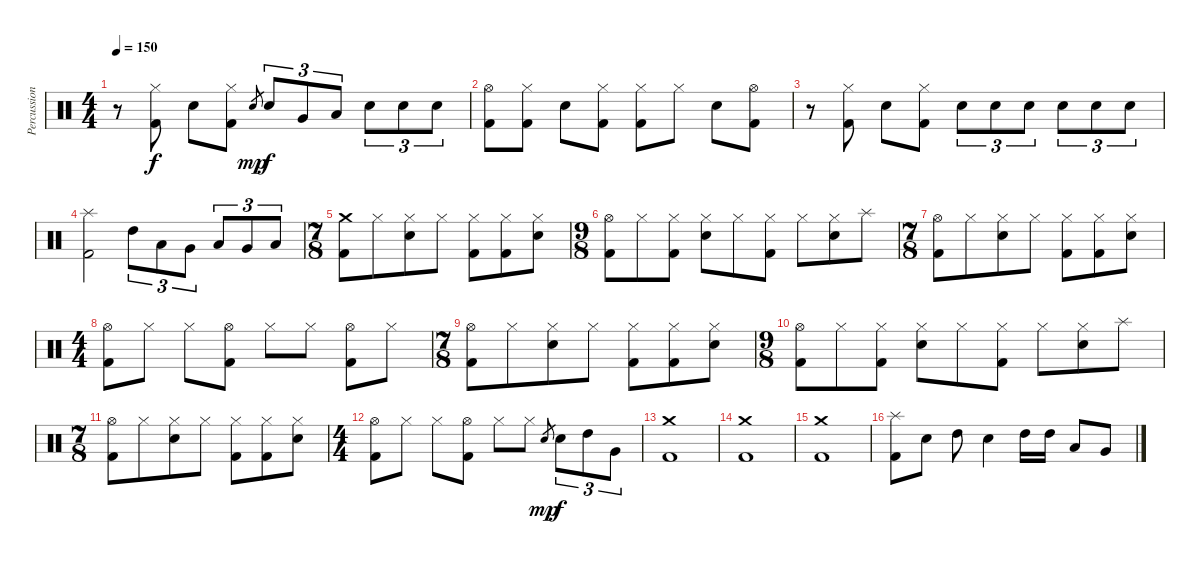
\track ("Percussions" "Percussion") {instrument percussion}
\staff {score}
\articulation defaults
\ts (4 4)
\tempo 150
\clef neutral
\ks c
r.8{dy f} ("Hi-Hat (closed)" "Kick (hit) 2").8 "Snare (hit) 2".8 ("Hi-Hat (closed)" "Kick (hit) 2").8 "Snare (hit) 2".8{gr dy mp} "Snare (hit) 2".8{tu (3 2) dy f} "Very Low Tom (hit)".8{tu (3 2)} "Low Floor Tom (hit)".8{tu (3 2)} "Snare (hit) 2".8{tu (3 2)} "Snare (hit) 2".8{tu (3 2)} "Snare (hit) 2".8{tu (3 2)} |
("Hi-Hat (open)" "Kick (hit) 2").8 ("Hi-Hat (closed)" "Kick (hit) 2").8 "Snare (hit) 2".8 ("Hi-Hat (closed)" "Kick (hit) 2").8 ("Hi-Hat (closed)" "Kick (hit) 2").8 "Hi-Hat (closed)".8 "Snare (hit) 2".8 ("Hi-Hat (open)" "Kick (hit) 2").8 |
r.8 ("Hi-Hat (closed)" "Kick (hit) 2").8 "Snare (hit) 2".8 ("Hi-Hat (closed)" "Kick (hit) 2").8 "Snare (hit) 2".8{tu (3 2)} "Snare (hit) 2".8{tu (3 2)} "Snare (hit) 2".8{tu (3 2)} "Snare (hit) 2".8{tu (3 2)} "Snare (hit) 2".8{tu (3 2)} "Snare (hit) 2".8{tu (3 2)} |
("Splash (hit)" "Kick (hit) 2").2 "High Tom (hit)".8{tu (3 2)} "Low Tom (hit)".8{tu (3 2)} "Very Low Tom (hit)".8{tu (3 2)} "Low Tom (hit)".8{tu (3 2)} "Very Low Tom (hit)".8{tu (3 2)} "Low Floor Tom (hit)".8{tu (3 2)} |
\ts (7 8)
("Crash medium (hit)" "Kick (hit) 2").8 "Hi-Hat (closed)".8 ("Hi-Hat (closed)" "Snare (hit) 2").8 "Hi-Hat (closed)".8 ("Hi-Hat (closed)" "Kick (hit) 2").8 ("Hi-Hat (closed)" "Kick (hit) 2").8 ("Hi-Hat (closed)" "Snare (hit) 2").8 |
\ts (9 8)
("Hi-Hat (open)" "Kick (hit) 2").8 "Hi-Hat (closed)".8 ("Hi-Hat (closed)" "Kick (hit) 2").8 ("Hi-Hat (closed)" "Snare (hit) 2").8 "Hi-Hat (closed)".8 ("Hi-Hat (closed)" "Kick (hit) 2").8 "Hi-Hat (closed)".8 ("Hi-Hat (closed)" "Snare (hit) 2").8 "Splash (hit)".8 |
\ts (7 8)
("Hi-Hat (open)" "Kick (hit) 2").8 "Hi-Hat (closed)".8 ("Hi-Hat (closed)" "Snare (hit) 2").8 "Hi-Hat (closed)".8 ("Hi-Hat (closed)" "Kick (hit) 2").8 ("Hi-Hat (closed)" "Kick (hit) 2").8 ("Hi-Hat (closed)" "Snare (hit) 2").8 |
\ts (4 4)
("Hi-Hat (open)" "Kick (hit) 2").8 "Hi-Hat (closed)".8 "Hi-Hat (closed)".8 ("Hi-Hat (open)" "Kick (hit) 2").8 "Hi-Hat (closed)".8 "Hi-Hat (closed)".8 ("Hi-Hat (open)" "Kick (hit) 2").8 "Hi-Hat (closed)".8 |
\ts (7 8)
("Hi-Hat (open)" "Kick (hit) 2").8 "Hi-Hat (closed)".8 ("Hi-Hat (closed)" "Snare (hit) 2").8 "Hi-Hat (closed)".8 ("Hi-Hat (closed)" "Kick (hit) 2").8 ("Hi-Hat (closed)" "Kick (hit) 2").8 ("Hi-Hat (closed)" "Snare (hit) 2").8 |
\ts (9 8)
("Hi-Hat (open)" "Kick (hit) 2").8 "Hi-Hat (closed)".8 ("Hi-Hat (closed)" "Kick (hit) 2").8 ("Hi-Hat (closed)" "Snare (hit) 2").8 "Hi-Hat (closed)".8 ("Hi-Hat (closed)" "Kick (hit) 2").8 "Hi-Hat (closed)".8 ("Hi-Hat (closed)" "Snare (hit) 2").8 "Splash (hit)".8 |
\ts (7 8)
("Hi-Hat (open)" "Kick (hit) 2").8 "Hi-Hat (closed)".8 ("Hi-Hat (closed)" "Snare (hit) 2").8 "Hi-Hat (closed)".8 ("Hi-Hat (closed)" "Kick (hit) 2").8 ("Hi-Hat (closed)" "Kick (hit) 2").8 ("Hi-Hat (closed)" "Snare (hit) 2").8 |
\ts (4 4)
("Hi-Hat (open)" "Kick (hit) 2").8 "Hi-Hat (closed)".8 "Hi-Hat (closed)".8 ("Hi-Hat (open)" "Kick (hit) 2").8 "Hi-Hat (closed)".8 "Hi-Hat (closed)".8 "Snare (hit) 2".8{gr dy mp} "Snare (hit) 2".8{tu (3 2) dy f} "High Tom (hit)".8{tu (3 2)} "Very Low Tom (hit)".8{tu (3 2)} |
("Crash medium (hit)" "Kick (hit) 2").1 |
("Crash medium (hit)" "Kick (hit) 2").1 |
("Crash medium (hit)" "Kick (hit) 2").1 |
("Splash (hit)" "Kick (hit) 2").8 "Snare (hit) 2".8 "High Tom (hit)".8 "Snare (hit) 2".4 "High Tom (hit)".16 "High Tom (hit)".16 "Low Tom (hit)".8 "Very Low Tom (hit)".8
